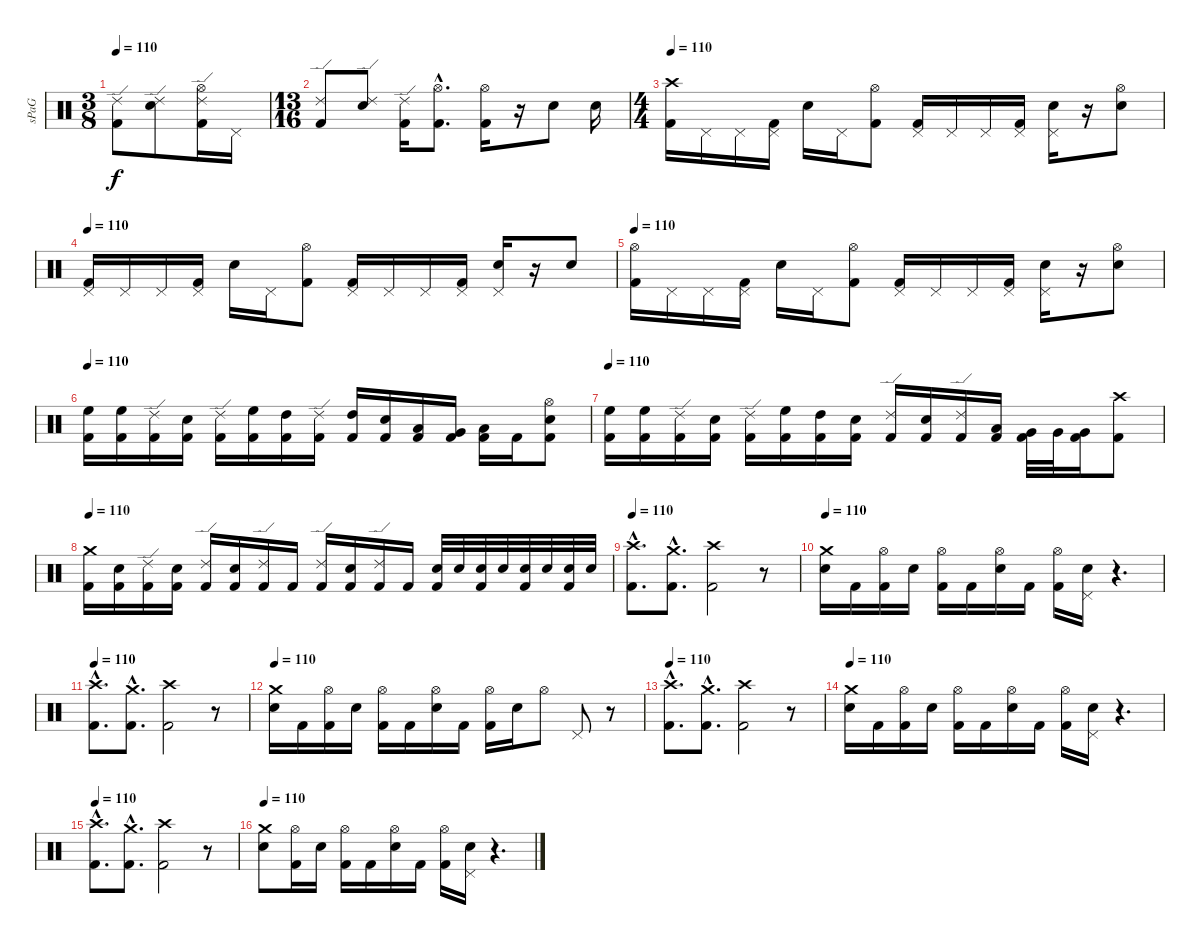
\track ("sPaG" "sPaG") {instrument percussion}
\staff {score}
\articulation defaults
\ts (3 8)
\tempo 110
\clef neutral
\ks c
("Ride (edge) 2" "Kick (hit) 2").8{dy f} ("Ride (edge) 2" "Snare (hit) 2").8 ("Ride (edge) 2" "Hi-Hat (open)" "Kick (hit) 2").16 "Pedal Hi-Hat (hit)".16 |
\ts (13 16)
("Ride (edge) 2" "Kick (hit) 2").8 ("Ride (edge) 2" "Snare (hit) 2").8 ("Ride (edge) 2" "Kick (hit) 2").16 ("Hi-Hat (open)"{hac} "Kick (hit) 2"{hac}).8{d} ("Hi-Hat (open)" "Kick (hit) 2").16 r.16 "Snare (hit) 2".8 "Snare (hit) 2".16 |
\ts (4 4)
\tempo 110
("Crash high (hit)" "Kick (hit) 2").16 "Pedal Hi-Hat (hit)".16 "Pedal Hi-Hat (hit)".16 ("Pedal Hi-Hat (hit)" "Kick (hit) 2").16 "Snare (hit) 2".16 "Pedal Hi-Hat (hit)".16 ("Hi-Hat (open)" "Kick (hit) 2").8 ("Pedal Hi-Hat (hit)" "Kick (hit) 2").16 "Pedal Hi-Hat (hit)".16 "Pedal Hi-Hat (hit)".16 ("Pedal Hi-Hat (hit)" "Kick (hit) 2").16 ("Pedal Hi-Hat (hit)" "Snare (hit) 2").16 r.16 ("Hi-Hat (open)" "Snare (hit) 2").8 |
\tempo 110
("Pedal Hi-Hat (hit)" "Kick (hit) 2").16 "Pedal Hi-Hat (hit)".16 "Pedal Hi-Hat (hit)".16 ("Pedal Hi-Hat (hit)" "Kick (hit) 2").16 "Snare (hit) 2".16 "Pedal Hi-Hat (hit)".16 ("Hi-Hat (open)" "Kick (hit) 2").8 ("Pedal Hi-Hat (hit)" "Kick (hit) 2").16 "Pedal Hi-Hat (hit)".16 "Pedal Hi-Hat (hit)".16 ("Pedal Hi-Hat (hit)" "Kick (hit) 2").16 ("Pedal Hi-Hat (hit)" "Snare (hit) 2").16 r.16 "Snare (hit) 2".8 |
\tempo 110
("Hi-Hat (open)" "Kick (hit) 2").16 "Pedal Hi-Hat (hit)".16 "Pedal Hi-Hat (hit)".16 ("Pedal Hi-Hat (hit)" "Kick (hit) 2").16 "Snare (hit) 2".16 "Pedal Hi-Hat (hit)".16 ("Hi-Hat (open)" "Kick (hit) 2").8 ("Pedal Hi-Hat (hit)" "Kick (hit) 2").16 "Pedal Hi-Hat (hit)".16 "Pedal Hi-Hat (hit)".16 ("Pedal Hi-Hat (hit)" "Kick (hit) 2").16 ("Pedal Hi-Hat (hit)" "Snare (hit) 2").16 r.16 ("Hi-Hat (open)" "Snare (hit) 2").8 |
\tempo 110
("High Floor Tom (hit)" "Kick (hit) 2").16 ("High Floor Tom (hit)" "Kick (hit) 2").16 ("Ride (edge) 2" "Kick (hit) 2").16 ("Snare (hit) 2" "Kick (hit) 2").16 ("Ride (edge) 2" "Kick (hit) 2").16 ("High Floor Tom (hit)" "Kick (hit) 2").16 ("High Tom (hit)" "Kick (hit) 2").16 ("Ride (edge) 2" "Kick (hit) 2").16 ("High Tom (hit)" "Kick (hit) 2").16 ("Snare (hit) 2" "Kick (hit) 2").16 ("Low Tom (hit)" "Kick (hit) 2").16 ("Very Low Tom (hit)" "Kick (hit) 2").16 ("Low Floor Tom (hit)" "Kick (hit) 2").16 "Kick (hit) 2".16 ("Hi-Hat (open)" "Snare (hit) 2" "Kick (hit) 2").8 |
\tempo 110
("High Floor Tom (hit)" "Kick (hit) 2").16 ("High Floor Tom (hit)" "Kick (hit) 2").16 ("Ride (edge) 2" "Kick (hit) 2").16 ("Snare (hit) 2" "Kick (hit) 2").16 ("Ride (edge) 2" "Kick (hit) 2").16 ("High Floor Tom (hit)" "Kick (hit) 2").16 ("High Tom (hit)" "Kick (hit) 2").16 ("Snare (hit) 2" "Kick (hit) 2").16 ("Ride (edge) 2" "Kick (hit) 2").16 ("Snare (hit) 2" "Kick (hit) 2").16 ("Ride (edge) 2" "Kick (hit) 2").16 ("Low Tom (hit)" "Kick (hit) 2").16 ("Very Low Tom (hit)" "Kick (hit) 2").32 "Very Low Tom (hit)".32 ("Very Low Tom (hit)" "Kick (hit) 2").16 ("Crash high (hit)" "Kick (hit) 2").8 |
\tempo 110
("Crash medium (hit)" "Kick (hit) 2").16 ("Snare (hit) 2" "Kick (hit) 2").16 ("Ride (edge) 2" "Kick (hit) 2").16 ("Snare (hit) 2" "Kick (hit) 2").16 ("Ride (edge) 2" "Kick (hit) 2").16 ("Snare (hit) 2" "Kick (hit) 2").16 ("Ride (edge) 2" "Kick (hit) 2").16 "Kick (hit) 2".16 ("Ride (edge) 2" "Kick (hit) 2").16 ("Snare (hit) 2" "Kick (hit) 2").16 ("Ride (edge) 2" "Kick (hit) 2").16 "Kick (hit) 2".16 ("Snare (hit) 2" "Kick (hit) 2").32 "Snare (hit) 2".32 ("Snare (hit) 2" "Kick (hit) 2").32 "Snare (hit) 2".32 ("Snare (hit) 2" "Kick (hit) 2").32 "Snare (hit) 2".32 ("Snare (hit) 2" "Kick (hit) 2").32 "Snare (hit) 2".32 |
\tempo 110
("Crash high (hit)"{hac} "Kick (hit) 2"{hac}).8{d} ("Crash medium (hit)"{hac} "Kick (hit) 2"{hac}).8{d} ("Crash high (hit)" "Kick (hit) 2").2 r.8 |
\tempo 110
("Crash medium (hit)" "Snare (hit) 2").16 "Kick (hit) 2".16 ("Hi-Hat (open)" "Kick (hit) 2").16 "Snare (hit) 2".16 ("Hi-Hat (open)" "Kick (hit) 2").16 "Kick (hit) 2".16 ("Hi-Hat (open)" "Snare (hit) 2").16 "Kick (hit) 2".16 ("Hi-Hat (open)" "Kick (hit) 2").16 ("Pedal Hi-Hat (hit)" "Snare (hit) 2").16 r.4{d} |
\tempo 110
("Crash high (hit)"{hac} "Kick (hit) 2"{hac}).8{d} ("Crash medium (hit)"{hac} "Kick (hit) 2"{hac}).8{d} ("Crash high (hit)" "Kick (hit) 2").2 r.8 |
\tempo 110
("Crash medium (hit)" "Snare (hit) 2").16 "Kick (hit) 2".16 ("Hi-Hat (open)" "Kick (hit) 2").16 "Snare (hit) 2".16 ("Hi-Hat (open)" "Kick (hit) 2").16 "Kick (hit) 2".16 ("Hi-Hat (open)" "Snare (hit) 2").16 "Kick (hit) 2".16 ("Hi-Hat (open)" "Kick (hit) 2").16 "Snare (hit) 2".16 "Hi-Hat (open)".8 "Pedal Hi-Hat (hit)".8 r.8 |
\tempo 110
("Crash high (hit)"{hac} "Kick (hit) 2"{hac}).8{d} ("Crash medium (hit)"{hac} "Kick (hit) 2"{hac}).8{d} ("Crash high (hit)" "Kick (hit) 2").2 r.8 |
\tempo 110
("Crash medium (hit)" "Snare (hit) 2").16 "Kick (hit) 2".16 ("Hi-Hat (open)" "Kick (hit) 2").16 "Snare (hit) 2".16 ("Hi-Hat (open)" "Kick (hit) 2").16 "Kick (hit) 2".16 ("Hi-Hat (open)" "Snare (hit) 2").16 "Kick (hit) 2".16 ("Hi-Hat (open)" "Kick (hit) 2").16 ("Pedal Hi-Hat (hit)" "Snare (hit) 2").16 r.4{d} |
\tempo 110
("Crash high (hit)"{hac} "Kick (hit) 2"{hac}).8{d} ("Crash medium (hit)"{hac} "Kick (hit) 2"{hac}).8{d} ("Crash high (hit)" "Kick (hit) 2").2 r.8 |
\tempo 110
("Crash medium (hit)" "Snare (hit) 2").8 ("Hi-Hat (open)" "Kick (hit) 2").16 "Snare (hit) 2".16 ("Hi-Hat (open)" "Kick (hit) 2").16 "Kick (hit) 2".16 ("Hi-Hat (open)" "Snare (hit) 2").16 "Kick (hit) 2".16 ("Hi-Hat (open)" "Kick (hit) 2").16 ("Pedal Hi-Hat (hit)" "Snare (hit) 2").16 r.4{d}
